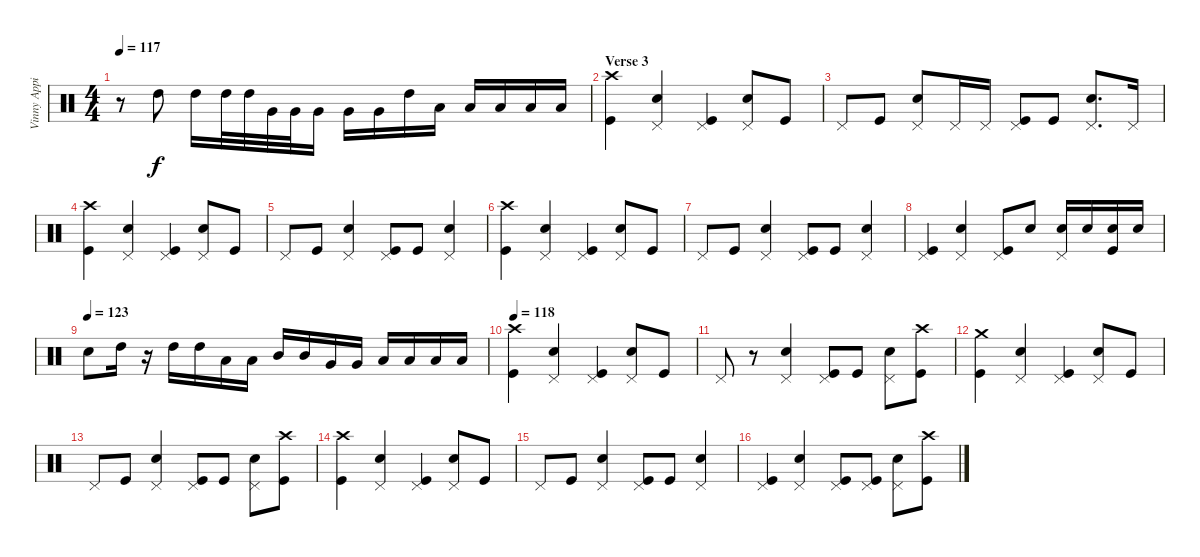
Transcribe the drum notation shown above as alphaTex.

\track ("Vinny Appice" "Vinny Appi") {instrument percussion}
\staff {score}
\articulation defaults
\ts (4 4)
\tempo 117
\clef neutral
\ks c
r.8{dy f} "High Tom (hit)".8 "High Tom (hit)".16 "High Tom (hit)".32 "High Tom (hit)".32 "Very Low Tom (hit)".32 "Very Low Tom (hit)".32 "Very Low Tom (hit)".16 "Very Low Tom (hit)".16 "Very Low Tom (hit)".16 "High Tom (hit)".16 "Low Tom (hit)".16 "Low Tom (hit)".16 "Low Tom (hit)".16 "Low Floor Tom (hit)".16 "Low Floor Tom (hit)".16 |
\section ("" "Verse 3")
("Kick (hit)" "Crash high (hit)").4 ("Pedal Hi-Hat (hit)" "Snare (hit) 2").4 ("Pedal Hi-Hat (hit)" "Kick (hit)").4 ("Pedal Hi-Hat (hit)" "Snare (hit) 2").8 "Kick (hit)".8 |
"Pedal Hi-Hat (hit)".8 "Kick (hit)".8 ("Pedal Hi-Hat (hit)" "Snare (hit) 2").8 "Pedal Hi-Hat (hit)".16 "Pedal Hi-Hat (hit)".16 ("Pedal Hi-Hat (hit)" "Kick (hit)").8 "Kick (hit)".8 ("Pedal Hi-Hat (hit)" "Snare (hit) 2").8{d} "Pedal Hi-Hat (hit)".16 |
("Crash high (hit)" "Kick (hit)").4 ("Pedal Hi-Hat (hit)" "Snare (hit) 2").4 ("Pedal Hi-Hat (hit)" "Kick (hit)").4 ("Pedal Hi-Hat (hit)" "Snare (hit) 2").8 "Kick (hit)".8 |
"Pedal Hi-Hat (hit)".8 "Kick (hit)".8 ("Pedal Hi-Hat (hit)" "Snare (hit) 2").4 ("Pedal Hi-Hat (hit)" "Kick (hit)").8 "Kick (hit)".8 ("Pedal Hi-Hat (hit)" "Snare (hit) 2").4 |
("Kick (hit)" "Crash high (hit)").4 ("Pedal Hi-Hat (hit)" "Snare (hit) 2").4 ("Pedal Hi-Hat (hit)" "Kick (hit)").4 ("Pedal Hi-Hat (hit)" "Snare (hit) 2").8 "Kick (hit)".8 |
"Pedal Hi-Hat (hit)".8 "Kick (hit)".8 ("Pedal Hi-Hat (hit)" "Snare (hit) 2").4 ("Pedal Hi-Hat (hit)" "Kick (hit)").8 "Kick (hit)".8 ("Pedal Hi-Hat (hit)" "Snare (hit) 2").4 |
("Pedal Hi-Hat (hit)" "Kick (hit)").4 ("Pedal Hi-Hat (hit)" "Snare (hit) 2").4 ("Pedal Hi-Hat (hit)" "Kick (hit)").8 "Snare (hit) 2".8 ("Snare (hit) 2" "Pedal Hi-Hat (hit)").16 "Snare (hit) 2".16 ("Snare (hit) 2" "Kick (hit)").16 "Snare (hit) 2".16 |
\tempo (123)
"Snare (hit) 2".8 "High Tom (hit)".16 r.16 "High Tom (hit)".16 "High Tom (hit)".16 "Low Tom (hit)".16 "Low Tom (hit)".16 "Mid Tom (hit)".16 "Mid Tom (hit)".16 "Very Low Tom (hit)".16 "Very Low Tom (hit)".16 "Low Tom (hit)".16 "Low Tom (hit)".16 "Low Floor Tom (hit)".16 "Low Floor Tom (hit)".16 |
\tempo 118
("Kick (hit)" "Crash high (hit)").4 ("Pedal Hi-Hat (hit)" "Snare (hit) 2").4 ("Pedal Hi-Hat (hit)" "Kick (hit)").4 ("Pedal Hi-Hat (hit)" "Snare (hit) 2").8 "Kick (hit)".8 |
"Pedal Hi-Hat (hit)".8 r.8 ("Pedal Hi-Hat (hit)" "Snare (hit) 2").4 ("Pedal Hi-Hat (hit)" "Kick (hit)").8 "Kick (hit)".8 ("Pedal Hi-Hat (hit)" "Snare (hit) 2").8 ("Kick (hit)" "Crash high (hit)").8 |
("Crash medium (hit)" "Kick (hit)").4 ("Pedal Hi-Hat (hit)" "Snare (hit) 2").4 ("Pedal Hi-Hat (hit)" "Kick (hit)").4 ("Pedal Hi-Hat (hit)" "Snare (hit) 2").8 "Kick (hit)".8 |
"Pedal Hi-Hat (hit)".8 "Kick (hit)".8 ("Pedal Hi-Hat (hit)" "Snare (hit) 2").4 ("Pedal Hi-Hat (hit)" "Kick (hit)").8 "Kick (hit)".8 ("Pedal Hi-Hat (hit)" "Snare (hit) 2").8 ("Kick (hit)" "Crash high (hit)").8 |
("Kick (hit)" "Crash high (hit)").4 ("Pedal Hi-Hat (hit)" "Snare (hit) 2").4 ("Pedal Hi-Hat (hit)" "Kick (hit)").4 ("Pedal Hi-Hat (hit)" "Snare (hit) 2").8 "Kick (hit)".8 |
"Pedal Hi-Hat (hit)".8 "Kick (hit)".8 ("Pedal Hi-Hat (hit)" "Snare (hit) 2").4 ("Pedal Hi-Hat (hit)" "Kick (hit)").8 "Kick (hit)".8 ("Pedal Hi-Hat (hit)" "Snare (hit) 2").4 |
("Pedal Hi-Hat (hit)" "Kick (hit)").4 ("Pedal Hi-Hat (hit)" "Snare (hit) 2").4 ("Pedal Hi-Hat (hit)" "Kick (hit)").8 ("Pedal Hi-Hat (hit)" "Kick (hit)").8 ("Pedal Hi-Hat (hit)" "Snare (hit) 2").8 ("Kick (hit)" "Crash high (hit)").8
